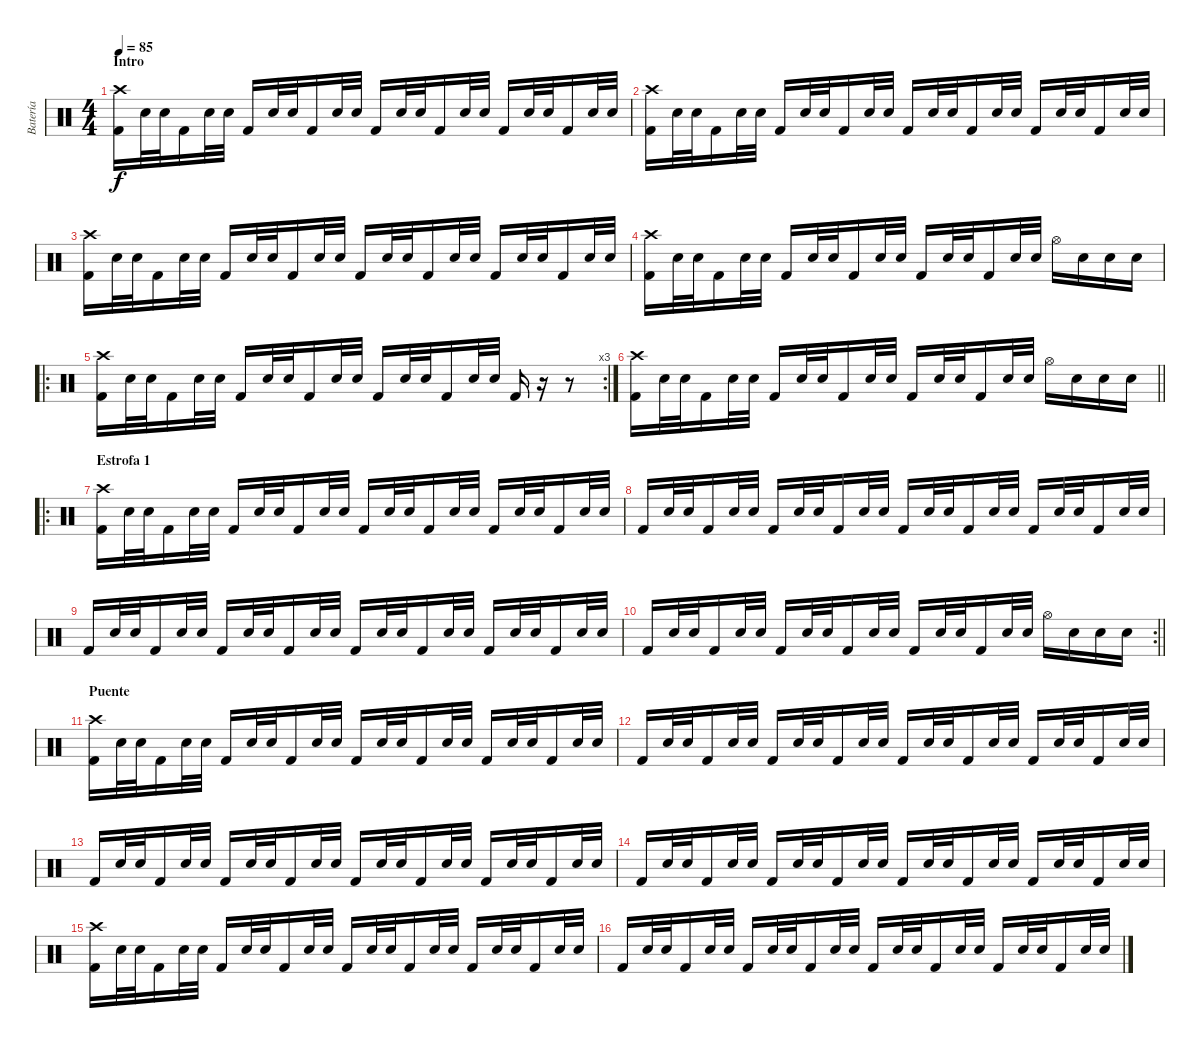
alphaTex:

\track ("Batería" "Batería") {instrument percussion}
\staff {score}
\articulation defaults
\ts (4 4)
\section ("" "Intro")
\tempo 85
\clef neutral
\ks c
("Crash high (hit)" "Kick (hit) 2").16{dy f} "Snare (hit) 2".32 "Electric Snare (hit)".32 "Kick (hit) 2".16 "Snare (hit) 2".32 "Electric Snare (hit)".32 "Kick (hit) 2".16 "Snare (hit) 2".32 "Electric Snare (hit)".32 "Kick (hit) 2".16 "Snare (hit) 2".32 "Electric Snare (hit)".32 "Kick (hit) 2".16 "Snare (hit) 2".32 "Electric Snare (hit)".32 "Kick (hit) 2".16 "Snare (hit) 2".32 "Electric Snare (hit)".32 "Kick (hit) 2".16 "Snare (hit) 2".32 "Electric Snare (hit)".32 "Kick (hit) 2".16 "Snare (hit) 2".32 "Electric Snare (hit)".32 |
("Crash high (hit)" "Kick (hit) 2").16 "Snare (hit) 2".32 "Electric Snare (hit)".32 "Kick (hit) 2".16 "Snare (hit) 2".32 "Electric Snare (hit)".32 "Kick (hit) 2".16 "Snare (hit) 2".32 "Electric Snare (hit)".32 "Kick (hit) 2".16 "Snare (hit) 2".32 "Electric Snare (hit)".32 "Kick (hit) 2".16 "Snare (hit) 2".32 "Electric Snare (hit)".32 "Kick (hit) 2".16 "Snare (hit) 2".32 "Electric Snare (hit)".32 "Kick (hit) 2".16 "Snare (hit) 2".32 "Electric Snare (hit)".32 "Kick (hit) 2".16 "Snare (hit) 2".32 "Electric Snare (hit)".32 |
("Crash high (hit)" "Kick (hit) 2").16 "Snare (hit) 2".32 "Electric Snare (hit)".32 "Kick (hit) 2".16 "Snare (hit) 2".32 "Electric Snare (hit)".32 "Kick (hit) 2".16 "Snare (hit) 2".32 "Electric Snare (hit)".32 "Kick (hit) 2".16 "Snare (hit) 2".32 "Electric Snare (hit)".32 "Kick (hit) 2".16 "Snare (hit) 2".32 "Electric Snare (hit)".32 "Kick (hit) 2".16 "Snare (hit) 2".32 "Electric Snare (hit)".32 "Kick (hit) 2".16 "Snare (hit) 2".32 "Electric Snare (hit)".32 "Kick (hit) 2".16 "Snare (hit) 2".32 "Electric Snare (hit)".32 |
("Crash high (hit)" "Kick (hit) 2").16 "Snare (hit) 2".32 "Electric Snare (hit)".32 "Kick (hit) 2".16 "Snare (hit) 2".32 "Electric Snare (hit)".32 "Kick (hit) 2".16 "Snare (hit) 2".32 "Electric Snare (hit)".32 "Kick (hit) 2".16 "Snare (hit) 2".32 "Electric Snare (hit)".32 "Kick (hit) 2".16 "Snare (hit) 2".32 "Electric Snare (hit)".32 "Kick (hit) 2".16 "Snare (hit) 2".32 "Electric Snare (hit)".32 "Hi-Hat (open)".16 "Snare (hit) 2".16 "Snare (hit) 2".16 "Snare (hit) 2".16 |
\ro
\rc 3
("Crash high (hit)" "Kick (hit) 2").16 "Snare (hit) 2".32 "Electric Snare (hit)".32 "Kick (hit) 2".16 "Snare (hit) 2".32 "Electric Snare (hit)".32 "Kick (hit) 2".16 "Snare (hit) 2".32 "Electric Snare (hit)".32 "Kick (hit) 2".16 "Snare (hit) 2".32 "Electric Snare (hit)".32 "Kick (hit) 2".16 "Snare (hit) 2".32 "Electric Snare (hit)".32 "Kick (hit) 2".16 "Snare (hit) 2".32 "Electric Snare (hit)".32 "Kick (hit) 2".16 r.16 r.8 |
\barLineRight lightlight
("Crash high (hit)" "Kick (hit) 2").16 "Snare (hit) 2".32 "Electric Snare (hit)".32 "Kick (hit) 2".16 "Snare (hit) 2".32 "Electric Snare (hit)".32 "Kick (hit) 2".16 "Snare (hit) 2".32 "Electric Snare (hit)".32 "Kick (hit) 2".16 "Snare (hit) 2".32 "Electric Snare (hit)".32 "Kick (hit) 2".16 "Snare (hit) 2".32 "Electric Snare (hit)".32 "Kick (hit) 2".16 "Snare (hit) 2".32 "Electric Snare (hit)".32 "Hi-Hat (open)".16 "Snare (hit) 2".16 "Snare (hit) 2".16 "Snare (hit) 2".16 |
\ro
\section ("" "Estrofa 1")
("Crash high (hit)" "Kick (hit) 2").16 "Snare (hit) 2".32 "Electric Snare (hit)".32 "Kick (hit) 2".16 "Snare (hit) 2".32 "Electric Snare (hit)".32 "Kick (hit) 2".16 "Snare (hit) 2".32 "Electric Snare (hit)".32 "Kick (hit) 2".16 "Snare (hit) 2".32 "Electric Snare (hit)".32 "Kick (hit) 2".16 "Snare (hit) 2".32 "Electric Snare (hit)".32 "Kick (hit) 2".16 "Snare (hit) 2".32 "Electric Snare (hit)".32 "Kick (hit) 2".16 "Snare (hit) 2".32 "Electric Snare (hit)".32 "Kick (hit) 2".16 "Snare (hit) 2".32 "Electric Snare (hit)".32 |
"Kick (hit) 2".16 "Snare (hit) 2".32 "Electric Snare (hit)".32 "Kick (hit) 2".16 "Snare (hit) 2".32 "Electric Snare (hit)".32 "Kick (hit) 2".16 "Snare (hit) 2".32 "Electric Snare (hit)".32 "Kick (hit) 2".16 "Snare (hit) 2".32 "Electric Snare (hit)".32 "Kick (hit) 2".16 "Snare (hit) 2".32 "Electric Snare (hit)".32 "Kick (hit) 2".16 "Snare (hit) 2".32 "Electric Snare (hit)".32 "Kick (hit) 2".16 "Snare (hit) 2".32 "Electric Snare (hit)".32 "Kick (hit) 2".16 "Snare (hit) 2".32 "Electric Snare (hit)".32 |
"Kick (hit) 2".16 "Snare (hit) 2".32 "Electric Snare (hit)".32 "Kick (hit) 2".16 "Snare (hit) 2".32 "Electric Snare (hit)".32 "Kick (hit) 2".16 "Snare (hit) 2".32 "Electric Snare (hit)".32 "Kick (hit) 2".16 "Snare (hit) 2".32 "Electric Snare (hit)".32 "Kick (hit) 2".16 "Snare (hit) 2".32 "Electric Snare (hit)".32 "Kick (hit) 2".16 "Snare (hit) 2".32 "Electric Snare (hit)".32 "Kick (hit) 2".16 "Snare (hit) 2".32 "Electric Snare (hit)".32 "Kick (hit) 2".16 "Snare (hit) 2".32 "Electric Snare (hit)".32 |
\rc 2
\barLineRight lightlight "Kick (hit) 2".16 "Snare (hit) 2".32 "Electric Snare (hit)".32 "Kick (hit) 2".16 "Snare (hit) 2".32 "Electric Snare (hit)".32 "Kick (hit) 2".16 "Snare (hit) 2".32 "Electric Snare (hit)".32 "Kick (hit) 2".16 "Snare (hit) 2".32 "Electric Snare (hit)".32 "Kick (hit) 2".16 "Snare (hit) 2".32 "Electric Snare (hit)".32 "Kick (hit) 2".16 "Snare (hit) 2".32 "Electric Snare (hit)".32 "Hi-Hat (open)".16 "Snare (hit) 2".16 "Snare (hit) 2".16 "Snare (hit) 2".16
|
\section ("" "Puente")
("Crash high (hit)" "Kick (hit) 2").16 "Snare (hit) 2".32 "Electric Snare (hit)".32 "Kick (hit) 2".16 "Snare (hit) 2".32 "Electric Snare (hit)".32 "Kick (hit) 2".16 "Snare (hit) 2".32 "Electric Snare (hit)".32 "Kick (hit) 2".16 "Snare (hit) 2".32 "Electric Snare (hit)".32 "Kick (hit) 2".16 "Snare (hit) 2".32 "Electric Snare (hit)".32 "Kick (hit) 2".16 "Snare (hit) 2".32 "Electric Snare (hit)".32 "Kick (hit) 2".16 "Snare (hit) 2".32 "Electric Snare (hit)".32 "Kick (hit) 2".16 "Snare (hit) 2".32 "Electric Snare (hit)".32 |
"Kick (hit) 2".16 "Snare (hit) 2".32 "Electric Snare (hit)".32 "Kick (hit) 2".16 "Snare (hit) 2".32 "Electric Snare (hit)".32 "Kick (hit) 2".16 "Snare (hit) 2".32 "Electric Snare (hit)".32 "Kick (hit) 2".16 "Snare (hit) 2".32 "Electric Snare (hit)".32 "Kick (hit) 2".16 "Snare (hit) 2".32 "Electric Snare (hit)".32 "Kick (hit) 2".16 "Snare (hit) 2".32 "Electric Snare (hit)".32 "Kick (hit) 2".16 "Snare (hit) 2".32 "Electric Snare (hit)".32 "Kick (hit) 2".16 "Snare (hit) 2".32 "Electric Snare (hit)".32 |
"Kick (hit) 2".16 "Snare (hit) 2".32 "Electric Snare (hit)".32 "Kick (hit) 2".16 "Snare (hit) 2".32 "Electric Snare (hit)".32 "Kick (hit) 2".16 "Snare (hit) 2".32 "Electric Snare (hit)".32 "Kick (hit) 2".16 "Snare (hit) 2".32 "Electric Snare (hit)".32 "Kick (hit) 2".16 "Snare (hit) 2".32 "Electric Snare (hit)".32 "Kick (hit) 2".16 "Snare (hit) 2".32 "Electric Snare (hit)".32 "Kick (hit) 2".16 "Snare (hit) 2".32 "Electric Snare (hit)".32 "Kick (hit) 2".16 "Snare (hit) 2".32 "Electric Snare (hit)".32 |
"Kick (hit) 2".16 "Snare (hit) 2".32 "Electric Snare (hit)".32 "Kick (hit) 2".16 "Snare (hit) 2".32 "Electric Snare (hit)".32 "Kick (hit) 2".16 "Snare (hit) 2".32 "Electric Snare (hit)".32 "Kick (hit) 2".16 "Snare (hit) 2".32 "Electric Snare (hit)".32 "Kick (hit) 2".16 "Snare (hit) 2".32 "Electric Snare (hit)".32 "Kick (hit) 2".16 "Snare (hit) 2".32 "Electric Snare (hit)".32 "Kick (hit) 2".16 "Snare (hit) 2".32 "Electric Snare (hit)".32 "Kick (hit) 2".16 "Snare (hit) 2".32 "Electric Snare (hit)".32 |
("Crash high (hit)" "Kick (hit) 2").16 "Snare (hit) 2".32 "Electric Snare (hit)".32 "Kick (hit) 2".16 "Snare (hit) 2".32 "Electric Snare (hit)".32 "Kick (hit) 2".16 "Snare (hit) 2".32 "Electric Snare (hit)".32 "Kick (hit) 2".16 "Snare (hit) 2".32 "Electric Snare (hit)".32 "Kick (hit) 2".16 "Snare (hit) 2".32 "Electric Snare (hit)".32 "Kick (hit) 2".16 "Snare (hit) 2".32 "Electric Snare (hit)".32 "Kick (hit) 2".16 "Snare (hit) 2".32 "Electric Snare (hit)".32 "Kick (hit) 2".16 "Snare (hit) 2".32 "Electric Snare (hit)".32 |
"Kick (hit) 2".16 "Snare (hit) 2".32 "Electric Snare (hit)".32 "Kick (hit) 2".16 "Snare (hit) 2".32 "Electric Snare (hit)".32 "Kick (hit) 2".16 "Snare (hit) 2".32 "Electric Snare (hit)".32 "Kick (hit) 2".16 "Snare (hit) 2".32 "Electric Snare (hit)".32 "Kick (hit) 2".16 "Snare (hit) 2".32 "Electric Snare (hit)".32 "Kick (hit) 2".16 "Snare (hit) 2".32 "Electric Snare (hit)".32 "Kick (hit) 2".16 "Snare (hit) 2".32 "Electric Snare (hit)".32 "Kick (hit) 2".16 "Snare (hit) 2".32 "Electric Snare (hit)".32
